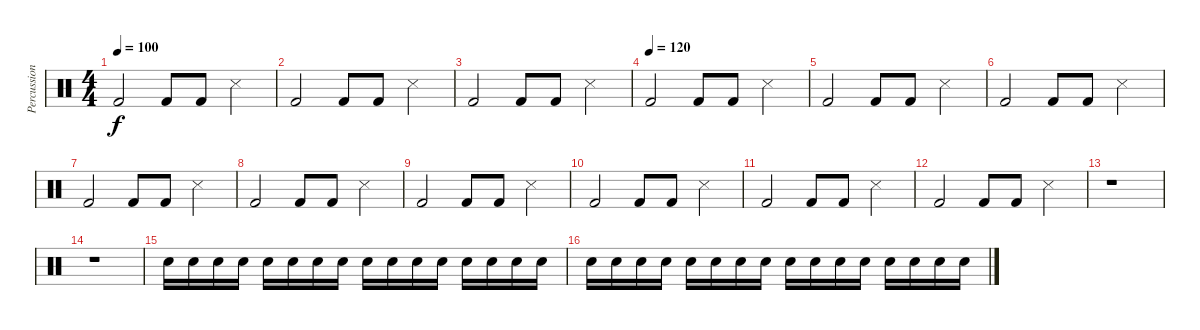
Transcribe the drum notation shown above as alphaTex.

\track ("Percussion" "Percussion") {instrument percussion}
\staff {score}
\articulation defaults
\ts (4 4)
\tempo 100
\clef neutral
\ks c "Kick (hit) 2".2{dy f} "Kick (hit) 2".8 "Kick (hit) 2".8 "Snare (side stick) 3".4
|
"Kick (hit) 2".2 "Kick (hit) 2".8 "Kick (hit) 2".8 "Snare (side stick) 3".4 |
"Kick (hit) 2".2 "Kick (hit) 2".8 "Kick (hit) 2".8 "Snare (side stick) 3".4 |
\tempo (120)
"Kick (hit) 2".2 "Kick (hit) 2".8 "Kick (hit) 2".8 "Snare (side stick) 3".4 |
"Kick (hit) 2".2 "Kick (hit) 2".8 "Kick (hit) 2".8 "Snare (side stick) 3".4 |
"Kick (hit) 2".2 "Kick (hit) 2".8 "Kick (hit) 2".8 "Snare (side stick) 3".4 |
"Kick (hit) 2".2 "Kick (hit) 2".8 "Kick (hit) 2".8 "Snare (side stick) 3".4 |
"Kick (hit) 2".2 "Kick (hit) 2".8 "Kick (hit) 2".8 "Snare (side stick) 3".4 |
"Kick (hit) 2".2 "Kick (hit) 2".8 "Kick (hit) 2".8 "Snare (side stick) 3".4 |
"Kick (hit) 2".2 "Kick (hit) 2".8 "Kick (hit) 2".8 "Snare (side stick) 3".4 |
"Kick (hit) 2".2 "Kick (hit) 2".8 "Kick (hit) 2".8 "Snare (side stick) 3".4 |
"Kick (hit) 2".2 "Kick (hit) 2".8 "Kick (hit) 2".8 "Snare (side stick) 3".4 |
r.1 |
r.1 |
"Snare (hit) 2".16 "Snare (hit) 2".16 "Snare (hit) 2".16 "Snare (hit) 2".16 "Snare (hit) 2".16 "Snare (hit) 2".16 "Snare (hit) 2".16 "Snare (hit) 2".16 "Snare (hit) 2".16 "Snare (hit) 2".16 "Snare (hit) 2".16 "Snare (hit) 2".16 "Snare (hit) 2".16 "Snare (hit) 2".16 "Snare (hit) 2".16 "Snare (hit) 2".16 |
"Snare (hit) 2".16 "Snare (hit) 2".16 "Snare (hit) 2".16 "Snare (hit) 2".16 "Snare (hit) 2".16 "Snare (hit) 2".16 "Snare (hit) 2".16 "Snare (hit) 2".16 "Snare (hit) 2".16 "Snare (hit) 2".16 "Snare (hit) 2".16 "Snare (hit) 2".16 "Snare (hit) 2".16 "Snare (hit) 2".16 "Snare (hit) 2".16 "Snare (hit) 2".16
